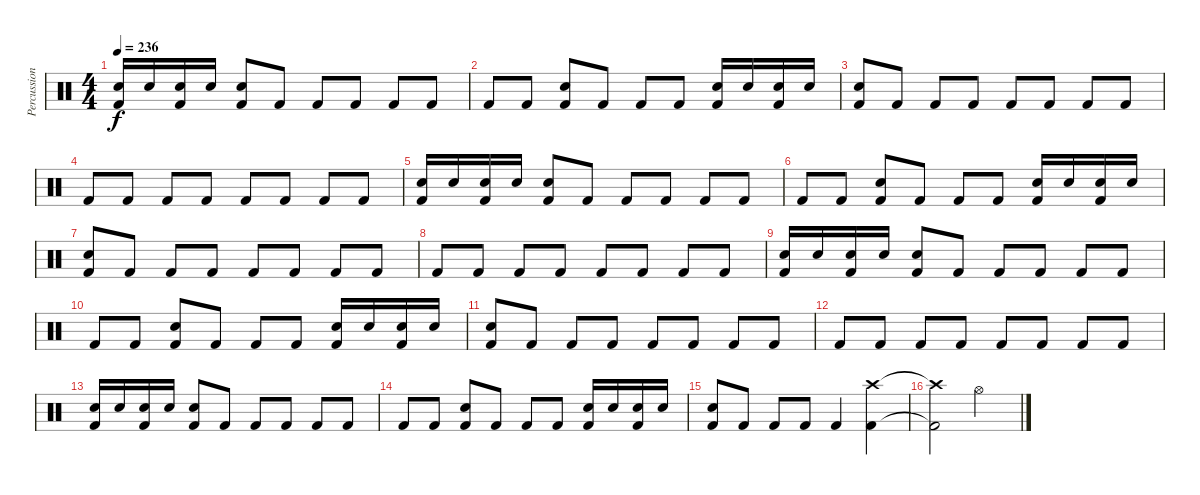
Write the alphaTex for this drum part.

\track ("Percussion" "Percussion") {instrument percussion}
\staff {score}
\articulation defaults
\ts (4 4)
\tempo 236
\clef neutral
\ks c
("Snare (hit) 2" "Kick (hit) 2").16{dy f} "Snare (hit) 2".16 ("Snare (hit) 2" "Kick (hit) 2").16 "Snare (hit) 2".16 ("Snare (hit) 2" "Kick (hit) 2").8 "Kick (hit) 2".8 "Kick (hit) 2".8 "Kick (hit) 2".8 "Kick (hit) 2".8 "Kick (hit) 2".8 |
"Kick (hit) 2".8 "Kick (hit) 2".8 ("Snare (hit) 2" "Kick (hit) 2").8 "Kick (hit) 2".8 "Kick (hit) 2".8 "Kick (hit) 2".8 ("Snare (hit) 2" "Kick (hit) 2").16 "Snare (hit) 2".16 ("Snare (hit) 2" "Kick (hit) 2").16 "Snare (hit) 2".16 |
("Snare (hit) 2" "Kick (hit) 2").8 "Kick (hit) 2".8 "Kick (hit) 2".8 "Kick (hit) 2".8 "Kick (hit) 2".8 "Kick (hit) 2".8 "Kick (hit) 2".8 "Kick (hit) 2".8 |
"Kick (hit) 2".8 "Kick (hit) 2".8 "Kick (hit) 2".8 "Kick (hit) 2".8 "Kick (hit) 2".8 "Kick (hit) 2".8 "Kick (hit) 2".8 "Kick (hit) 2".8 |
("Snare (hit) 2" "Kick (hit) 2").16 "Snare (hit) 2".16 ("Snare (hit) 2" "Kick (hit) 2").16 "Snare (hit) 2".16 ("Snare (hit) 2" "Kick (hit) 2").8 "Kick (hit) 2".8 "Kick (hit) 2".8 "Kick (hit) 2".8 "Kick (hit) 2".8 "Kick (hit) 2".8 |
"Kick (hit) 2".8 "Kick (hit) 2".8 ("Snare (hit) 2" "Kick (hit) 2").8 "Kick (hit) 2".8 "Kick (hit) 2".8 "Kick (hit) 2".8 ("Snare (hit) 2" "Kick (hit) 2").16 "Snare (hit) 2".16 ("Snare (hit) 2" "Kick (hit) 2").16 "Snare (hit) 2".16 |
("Snare (hit) 2" "Kick (hit) 2").8 "Kick (hit) 2".8 "Kick (hit) 2".8 "Kick (hit) 2".8 "Kick (hit) 2".8 "Kick (hit) 2".8 "Kick (hit) 2".8 "Kick (hit) 2".8 |
"Kick (hit) 2".8 "Kick (hit) 2".8 "Kick (hit) 2".8 "Kick (hit) 2".8 "Kick (hit) 2".8 "Kick (hit) 2".8 "Kick (hit) 2".8 "Kick (hit) 2".8 |
("Snare (hit) 2" "Kick (hit) 2").16 "Snare (hit) 2".16 ("Snare (hit) 2" "Kick (hit) 2").16 "Snare (hit) 2".16 ("Snare (hit) 2" "Kick (hit) 2").8 "Kick (hit) 2".8 "Kick (hit) 2".8 "Kick (hit) 2".8 "Kick (hit) 2".8 "Kick (hit) 2".8 |
"Kick (hit) 2".8 "Kick (hit) 2".8 ("Snare (hit) 2" "Kick (hit) 2").8 "Kick (hit) 2".8 "Kick (hit) 2".8 "Kick (hit) 2".8 ("Snare (hit) 2" "Kick (hit) 2").16 "Snare (hit) 2".16 ("Snare (hit) 2" "Kick (hit) 2").16 "Snare (hit) 2".16 |
("Snare (hit) 2" "Kick (hit) 2").8 "Kick (hit) 2".8 "Kick (hit) 2".8 "Kick (hit) 2".8 "Kick (hit) 2".8 "Kick (hit) 2".8 "Kick (hit) 2".8 "Kick (hit) 2".8 |
"Kick (hit) 2".8 "Kick (hit) 2".8 "Kick (hit) 2".8 "Kick (hit) 2".8 "Kick (hit) 2".8 "Kick (hit) 2".8 "Kick (hit) 2".8 "Kick (hit) 2".8 |
("Snare (hit) 2" "Kick (hit) 2").16 "Snare (hit) 2".16 ("Snare (hit) 2" "Kick (hit) 2").16 "Snare (hit) 2".16 ("Snare (hit) 2" "Kick (hit) 2").8 "Kick (hit) 2".8 "Kick (hit) 2".8 "Kick (hit) 2".8 "Kick (hit) 2".8 "Kick (hit) 2".8 |
"Kick (hit) 2".8 "Kick (hit) 2".8 ("Snare (hit) 2" "Kick (hit) 2").8 "Kick (hit) 2".8 "Kick (hit) 2".8 "Kick (hit) 2".8 ("Snare (hit) 2" "Kick (hit) 2").16 "Snare (hit) 2".16 ("Snare (hit) 2" "Kick (hit) 2").16 "Snare (hit) 2".16 |
("Snare (hit) 2" "Kick (hit) 2").8 "Kick (hit) 2".8 "Kick (hit) 2".8 "Kick (hit) 2".8 "Kick (hit) 2".4 ("Crash high (hit)" "Kick (hit) 2").4 |
("Crash high (hit)"{t} "Kick (hit) 2"{t}).2 "Hi-Hat (open)".2
